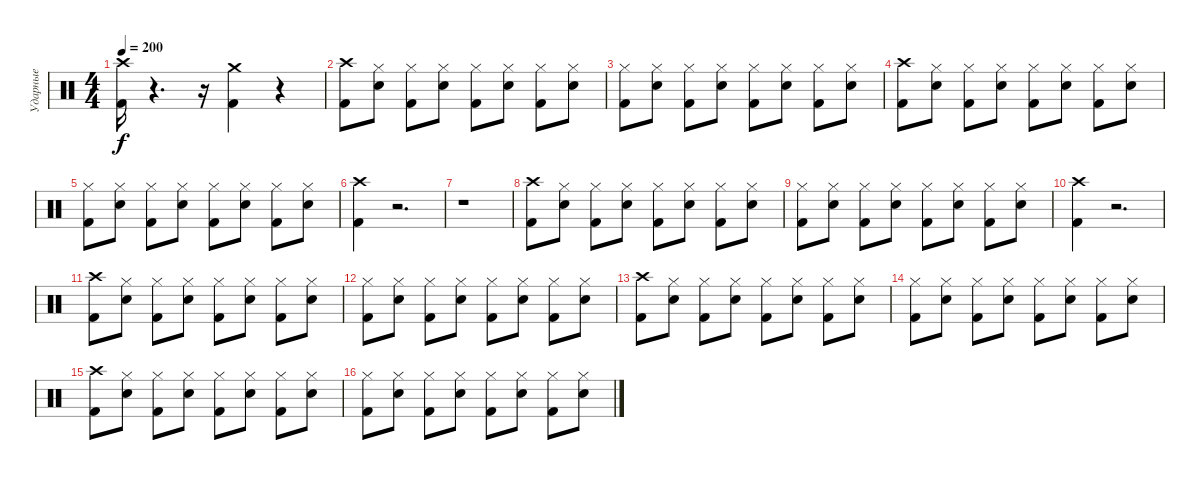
\track ("Ударные" "Ударные") {instrument percussion}
\staff {score}
\articulation defaults
\ts (4 4)
\tempo 200
\clef neutral
\ks c
("Crash high (hit)" "Kick (hit) 2").16{dy f} r.4{d} r.16 ("Crash medium (hit)" "Kick (hit) 2").4 r.4 |
("Crash high (hit)" "Kick (hit) 2").8 ("Hi-Hat (closed)" "Snare (hit) 2").8 ("Hi-Hat (closed)" "Kick (hit) 2").8 ("Hi-Hat (closed)" "Snare (hit) 2").8 ("Hi-Hat (closed)" "Kick (hit) 2").8 ("Hi-Hat (closed)" "Snare (hit) 2").8 ("Hi-Hat (closed)" "Kick (hit) 2").8 ("Hi-Hat (closed)" "Snare (hit) 2").8 |
("Hi-Hat (closed)" "Kick (hit) 2").8 ("Hi-Hat (closed)" "Snare (hit) 2").8 ("Hi-Hat (closed)" "Kick (hit) 2").8 ("Hi-Hat (closed)" "Snare (hit) 2").8 ("Hi-Hat (closed)" "Kick (hit) 2").8 ("Hi-Hat (closed)" "Snare (hit) 2").8 ("Hi-Hat (closed)" "Kick (hit) 2").8 ("Hi-Hat (closed)" "Snare (hit) 2").8 |
("Crash high (hit)" "Kick (hit) 2").8 ("Hi-Hat (closed)" "Snare (hit) 2").8 ("Hi-Hat (closed)" "Kick (hit) 2").8 ("Hi-Hat (closed)" "Snare (hit) 2").8 ("Hi-Hat (closed)" "Kick (hit) 2").8 ("Hi-Hat (closed)" "Snare (hit) 2").8 ("Hi-Hat (closed)" "Kick (hit) 2").8 ("Hi-Hat (closed)" "Snare (hit) 2").8 |
("Hi-Hat (closed)" "Kick (hit) 2").8 ("Hi-Hat (closed)" "Snare (hit) 2").8 ("Hi-Hat (closed)" "Kick (hit) 2").8 ("Hi-Hat (closed)" "Snare (hit) 2").8 ("Hi-Hat (closed)" "Kick (hit) 2").8 ("Hi-Hat (closed)" "Snare (hit) 2").8 ("Hi-Hat (closed)" "Kick (hit) 2").8 ("Hi-Hat (closed)" "Snare (hit) 2").8 |
("Crash high (hit)" "Kick (hit) 2").4 r.2{d} |
r.1 |
("Crash high (hit)" "Kick (hit) 2").8 ("Hi-Hat (closed)" "Snare (hit) 2").8 ("Hi-Hat (closed)" "Kick (hit) 2").8 ("Hi-Hat (closed)" "Snare (hit) 2").8 ("Hi-Hat (closed)" "Kick (hit) 2").8 ("Hi-Hat (closed)" "Snare (hit) 2").8 ("Hi-Hat (closed)" "Kick (hit) 2").8 ("Hi-Hat (closed)" "Snare (hit) 2").8 |
("Hi-Hat (closed)" "Kick (hit) 2").8 ("Hi-Hat (closed)" "Snare (hit) 2").8 ("Hi-Hat (closed)" "Kick (hit) 2").8 ("Hi-Hat (closed)" "Snare (hit) 2").8 ("Hi-Hat (closed)" "Kick (hit) 2").8 ("Hi-Hat (closed)" "Snare (hit) 2").8 ("Hi-Hat (closed)" "Kick (hit) 2").8 ("Hi-Hat (closed)" "Snare (hit) 2").8 |
("Crash high (hit)" "Kick (hit) 2").4 r.2{d} |
("Crash high (hit)" "Kick (hit) 2").8 ("Hi-Hat (closed)" "Snare (hit) 2").8 ("Hi-Hat (closed)" "Kick (hit) 2").8 ("Hi-Hat (closed)" "Snare (hit) 2").8 ("Hi-Hat (closed)" "Kick (hit) 2").8 ("Hi-Hat (closed)" "Snare (hit) 2").8 ("Hi-Hat (closed)" "Kick (hit) 2").8 ("Hi-Hat (closed)" "Snare (hit) 2").8 |
("Hi-Hat (closed)" "Kick (hit) 2").8 ("Hi-Hat (closed)" "Snare (hit) 2").8 ("Hi-Hat (closed)" "Kick (hit) 2").8 ("Hi-Hat (closed)" "Snare (hit) 2").8 ("Hi-Hat (closed)" "Kick (hit) 2").8 ("Hi-Hat (closed)" "Snare (hit) 2").8 ("Hi-Hat (closed)" "Kick (hit) 2").8 ("Hi-Hat (closed)" "Snare (hit) 2").8 |
("Crash high (hit)" "Kick (hit) 2").8 ("Hi-Hat (closed)" "Snare (hit) 2").8 ("Hi-Hat (closed)" "Kick (hit) 2").8 ("Hi-Hat (closed)" "Snare (hit) 2").8 ("Hi-Hat (closed)" "Kick (hit) 2").8 ("Hi-Hat (closed)" "Snare (hit) 2").8 ("Hi-Hat (closed)" "Kick (hit) 2").8 ("Hi-Hat (closed)" "Snare (hit) 2").8 |
("Hi-Hat (closed)" "Kick (hit) 2").8 ("Hi-Hat (closed)" "Snare (hit) 2").8 ("Hi-Hat (closed)" "Kick (hit) 2").8 ("Hi-Hat (closed)" "Snare (hit) 2").8 ("Hi-Hat (closed)" "Kick (hit) 2").8 ("Hi-Hat (closed)" "Snare (hit) 2").8 ("Hi-Hat (closed)" "Kick (hit) 2").8 ("Hi-Hat (closed)" "Snare (hit) 2").8 |
("Crash high (hit)" "Kick (hit) 2").8 ("Hi-Hat (closed)" "Snare (hit) 2").8 ("Hi-Hat (closed)" "Kick (hit) 2").8 ("Hi-Hat (closed)" "Snare (hit) 2").8 ("Hi-Hat (closed)" "Kick (hit) 2").8 ("Hi-Hat (closed)" "Snare (hit) 2").8 ("Hi-Hat (closed)" "Kick (hit) 2").8 ("Hi-Hat (closed)" "Snare (hit) 2").8 |
("Hi-Hat (closed)" "Kick (hit) 2").8 ("Hi-Hat (closed)" "Snare (hit) 2").8 ("Hi-Hat (closed)" "Kick (hit) 2").8 ("Hi-Hat (closed)" "Snare (hit) 2").8 ("Hi-Hat (closed)" "Kick (hit) 2").8 ("Hi-Hat (closed)" "Snare (hit) 2").8 ("Hi-Hat (closed)" "Kick (hit) 2").8 ("Hi-Hat (closed)" "Snare (hit) 2").8
